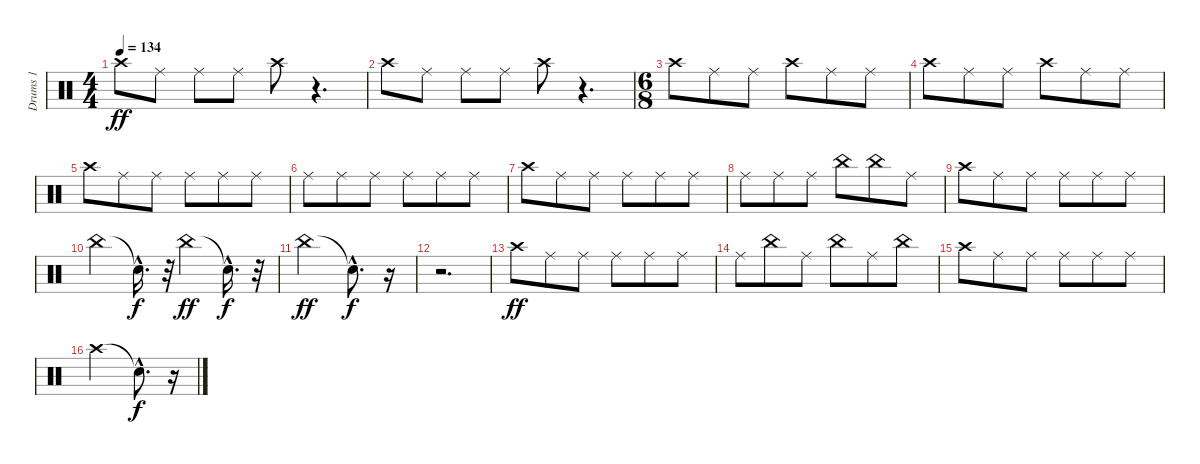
\track ("Drums 1" "Drums 1") {instrument percussion}
\staff {score}
\articulation defaults
\ts (4 4)
\tempo 134
\clef neutral
\ks c "Crash high (hit)".8{dy ff} "Ride (middle)".8 "Ride (middle)".8 "Ride (middle)".8 "Crash high (hit)".8
r.4{d} |
"Crash high (hit)".8 "Ride (middle)".8 "Ride (middle)".8 "Ride (middle)".8 "Crash high (hit)".8 r.4{d} |
\ts (6 8)
"Crash high (hit)".8 "Ride (middle)".8 "Ride (middle)".8 "Crash high (hit)".8 "Ride (middle)".8 "Ride (middle)".8 |
"Crash high (hit)".8 "Ride (middle)".8 "Ride (middle)".8 "Crash high (hit)".8 "Ride (middle)".8 "Ride (middle)".8 |
"Crash high (hit)".8 "Ride (middle)".8 "Ride (middle)".8 "Ride (middle)".8 "Ride (middle)".8 "Ride (middle)".8 |
"Ride (middle)".8 "Ride (middle)".8 "Ride (middle)".8 "Ride (middle)".8 "Ride (middle)".8 "Ride (middle)".8 |
"Crash high (hit)".8 "Ride (middle)".8 "Ride (middle)".8 "Ride (middle)".8 "Ride (middle)".8 "Ride (middle)".8 |
"Ride (middle)".8 "Ride (middle)".8 "Ride (middle)".8 "China (hit)".8 "China (hit)".8 "Ride (middle)".8 |
"Crash high (hit)".8 "Ride (middle)".8 "Ride (middle)".8 "Ride (middle)".8 "Ride (middle)".8 "Ride (middle)".8 |
"China (hit)".4 "Snare (hit)"{hac t}.16{d dy f} r.32 "China (hit)".4{dy ff} "Snare (hit)"{hac t}.16{d dy f} r.32 |
"China (hit)".2{dy ff} "Snare (hit)"{hac t}.8{d dy f} r.16 |
r.2{d} |
"Crash high (hit)".8{dy ff} "Ride (middle)".8 "Ride (middle)".8 "Ride (middle)".8 "Ride (middle)".8 "Ride (middle)".8 |
"Ride (middle)".8 "China (hit)".8 "Ride (middle)".8 "China (hit)".8 "Ride (middle)".8 "China (hit)".8 |
"Crash high (hit)".8 "Ride (middle)".8 "Ride (middle)".8 "Ride (middle)".8 "Ride (middle)".8 "Ride (middle)".8 |
"Crash high (hit)".2 "Snare (hit)"{hac t}.8{d dy f} r.16
